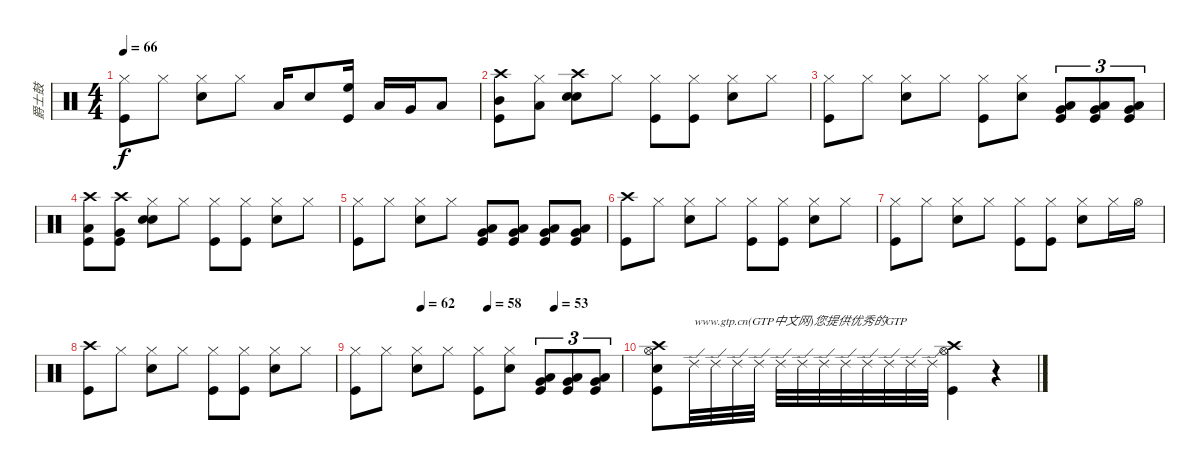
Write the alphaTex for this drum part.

\track ("爵士鼓" "爵士鼓") {instrument percussion}
\staff {score}
\articulation defaults
\ts (4 4)
\tempo 66
\clef neutral
\ks c
("Hi-Hat (closed)" "Kick (hit)").8{dy f} "Hi-Hat (closed)".8 ("Hi-Hat (closed)" "Snare (hit) 2").8 "Hi-Hat (closed)".8 "Low Tom (hit)".16 "Electric Snare (hit)".8 ("High Floor Tom (hit)" "Kick (hit)").16 "Low Tom (hit)".16 "Very Low Tom (hit)".16 "Low Floor Tom (hit)".8 |
("Crash high (hit)" "Mid Tom (hit)" "Kick (hit)").8 ("Hi-Hat (closed)" "Low Tom (hit)").8 ("Crash high (hit)" "Electric Snare (hit)" "Snare (hit) 2").8 "Hi-Hat (closed)".8 ("Hi-Hat (closed)" "Kick (hit)").8 ("Hi-Hat (closed)" "Kick (hit)").8 ("Hi-Hat (closed)" "Snare (hit) 2").8 "Hi-Hat (closed)".8 |
("Hi-Hat (closed)" "Kick (hit)").8 "Hi-Hat (closed)".8 ("Hi-Hat (closed)" "Snare (hit) 2").8 "Hi-Hat (closed)".8 ("Hi-Hat (closed)" "Kick (hit)").8 ("Hi-Hat (closed)" "Electric Snare (hit)").8 ("Low Tom (hit)" "Very Low Tom (hit)" "Kick (hit)").8{tu (3 2)} ("Low Tom (hit)" "Very Low Tom (hit)" "Kick (hit)").8{tu (3 2)} ("Very Low Tom (hit)" "Low Floor Tom (hit)" "Kick (hit)").8{tu (3 2)} |
("Crash high (hit)" "Low Tom (hit)" "Kick (hit)").8 ("Crash high (hit)" "Very Low Tom (hit)" "Kick (hit)").8 ("Hi-Hat (closed)" "Electric Snare (hit)" "Snare (hit) 2").8 "Hi-Hat (closed)".8 ("Hi-Hat (closed)" "Kick (hit)").8 ("Hi-Hat (closed)" "Kick (hit)").8 ("Hi-Hat (closed)" "Snare (hit) 2").8 "Hi-Hat (closed)".8 |
("Hi-Hat (closed)" "Kick (hit)").8 "Hi-Hat (closed)".8 ("Hi-Hat (closed)" "Snare (hit) 2").8 "Hi-Hat (closed)".8 ("Low Tom (hit)" "Very Low Tom (hit)" "Kick (hit)").8 ("Low Tom (hit)" "Very Low Tom (hit)" "Kick (hit)").8 ("Very Low Tom (hit)" "Low Floor Tom (hit)" "Kick (hit)").8 ("Very Low Tom (hit)" "Low Floor Tom (hit)" "Kick (hit)").8 |
("Crash high (hit)" "Kick (hit)").8 "Hi-Hat (closed)".8 ("Hi-Hat (closed)" "Snare (hit) 2").8 "Hi-Hat (closed)".8 ("Hi-Hat (closed)" "Kick (hit)").8 ("Hi-Hat (closed)" "Kick (hit)").8 ("Hi-Hat (closed)" "Snare (hit) 2").8 "Hi-Hat (closed)".8 |
("Hi-Hat (closed)" "Kick (hit)").8 "Hi-Hat (closed)".8 ("Hi-Hat (closed)" "Snare (hit) 2").8 "Hi-Hat (closed)".8 ("Hi-Hat (closed)" "Kick (hit)").8 ("Hi-Hat (closed)" "Kick (hit)").8 ("Hi-Hat (closed)" "Snare (hit) 2").8 "Hi-Hat (closed)".16 "Hi-Hat (open)".16 |
("Crash high (hit)" "Kick (hit)").8 "Hi-Hat (closed)".8 ("Hi-Hat (closed)" "Snare (hit) 2").8 "Hi-Hat (closed)".8 ("Hi-Hat (closed)" "Kick (hit)").8 ("Hi-Hat (closed)" "Kick (hit)").8 ("Hi-Hat (closed)" "Snare (hit) 2").8 "Hi-Hat (closed)".8 |
\tempo (62 0.25)
\tempo (58 0.5)
\tempo (53 0.75)
("Hi-Hat (closed)" "Kick (hit)").8 "Hi-Hat (closed)".8 ("Hi-Hat (closed)" "Snare (hit) 2").8 "Hi-Hat (closed)".8 ("Hi-Hat (closed)" "Kick (hit)").8 ("Hi-Hat (closed)" "Electric Snare (hit)").8 ("Low Tom (hit)" "Very Low Tom (hit)" "Kick (hit)").8{tu (3 2)} ("Low Tom (hit)" "Very Low Tom (hit)" "Kick (hit)").8{tu (3 2)} ("Very Low Tom (hit)" "Low Floor Tom (hit)" "Kick (hit)").8{tu (3 2)} |
("Crash high (hit)" "Hi-Hat (open)" "Electric Snare (hit)" "Kick (hit)").8 "Ride (edge) 2".32{txt "www.gtp.cn(GTP中文网)您提供优秀的GTP"} "Ride (edge) 2".32 "Ride (edge) 2".32 "Ride (edge) 2".32 "Ride (edge) 2".32 "Ride (edge) 2".32 "Ride (edge) 2".32 "Ride (edge) 2".32 "Ride (edge) 2".32 "Ride (edge) 2".32 "Ride (edge) 2".32 "Ride (edge) 2".32 ("Crash high (hit)" "Hi-Hat (open)" "Kick (hit)").4 r.4
